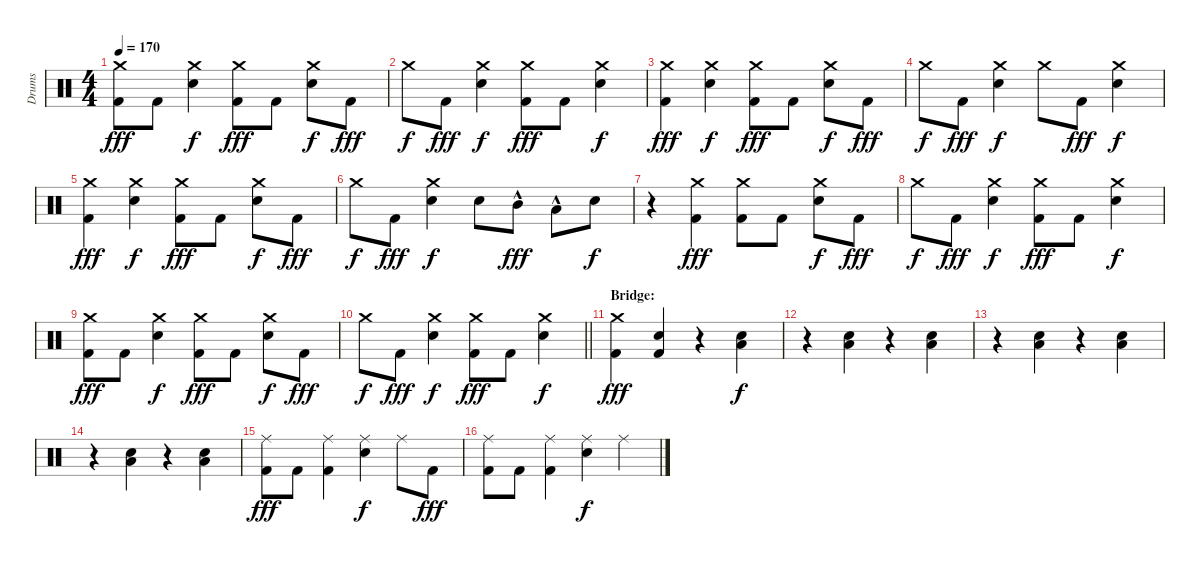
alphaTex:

\track ("Drums" "Drums") {instrument percussion}
\staff {score}
\articulation defaults
\ts (4 4)
\tempo 170
\clef neutral
\ks c
("Crash medium (hit)" "Kick (hit) 2").8{dy fff} "Kick (hit) 2".8 ("Crash medium (hit)" "Electric Snare (hit)").4{dy f} ("Crash medium (hit)" "Kick (hit) 2").8{dy fff} "Kick (hit) 2".8 ("Crash medium (hit)" "Electric Snare (hit)").8{dy f} "Kick (hit) 2".8{dy fff} |
"Crash medium (hit)".8{dy f} "Kick (hit) 2".8{dy fff} ("Crash medium (hit)" "Electric Snare (hit)").4{dy f} ("Crash medium (hit)" "Kick (hit) 2").8{dy fff} "Kick (hit) 2".8 ("Crash medium (hit)" "Electric Snare (hit)").4{dy f} |
("Crash medium (hit)" "Kick (hit) 2").4{dy fff} ("Crash medium (hit)" "Electric Snare (hit)").4{dy f} ("Crash medium (hit)" "Kick (hit) 2").8{dy fff} "Kick (hit) 2".8 ("Crash medium (hit)" "Electric Snare (hit)").8{dy f} "Kick (hit) 2".8{dy fff} |
"Crash medium (hit)".8{dy f} "Kick (hit) 2".8{dy fff} ("Crash medium (hit)" "Electric Snare (hit)").4{dy f} "Crash medium (hit)".8 "Kick (hit) 2".8{dy fff} ("Crash medium (hit)" "Electric Snare (hit)").4{dy f} |
("Crash medium (hit)" "Kick (hit) 2").4{dy fff} ("Crash medium (hit)" "Electric Snare (hit)").4{dy f} ("Crash medium (hit)" "Kick (hit) 2").8{dy fff} "Kick (hit) 2".8 ("Crash medium (hit)" "Electric Snare (hit)").8{dy f} "Kick (hit) 2".8{dy fff} |
"Crash medium (hit)".8{dy f} "Kick (hit) 2".8{dy fff} ("Crash medium (hit)" "Electric Snare (hit)").4{dy f} "Electric Snare (hit)".8 "Mid Tom (hit)"{hac}.8{dy fff} "Low Tom (hit)"{hac}.8 "Electric Snare (hit)".8{dy f} |
r.4 ("Crash medium (hit)" "Kick (hit) 2").4{dy fff} ("Crash medium (hit)" "Kick (hit) 2").8 "Kick (hit) 2".8 ("Crash medium (hit)" "Electric Snare (hit)").8{dy f} "Kick (hit) 2".8{dy fff} |
"Crash medium (hit)".8{dy f} "Kick (hit) 2".8{dy fff} ("Crash medium (hit)" "Electric Snare (hit)").4{dy f} ("Crash medium (hit)" "Kick (hit) 2").8{dy fff} "Kick (hit) 2".8 ("Crash medium (hit)" "Electric Snare (hit)").4{dy f} |
("Crash medium (hit)" "Kick (hit) 2").8{dy fff} "Kick (hit) 2".8 ("Crash medium (hit)" "Electric Snare (hit)").4{dy f} ("Crash medium (hit)" "Kick (hit) 2").8{dy fff} "Kick (hit) 2".8 ("Crash medium (hit)" "Electric Snare (hit)").8{dy f} "Kick (hit) 2".8{dy fff} |
\barLineRight lightlight "Crash medium (hit)".8{dy f} "Kick (hit) 2".8{dy fff}
("Crash medium (hit)" "Electric Snare (hit)").4{dy f} ("Crash medium (hit)" "Kick (hit) 2").8{dy fff} "Kick (hit) 2".8 ("Crash medium (hit)" "Electric Snare (hit)").4{dy f} |
\section ("" "Bridge:")
("Crash medium (hit)" "Kick (hit) 2").4{dy fff} ("Electric Snare (hit)" "Kick (hit) 2").4 r.4 ("Low Tom (hit)" "Electric Snare (hit)").4{dy f} |
r.4 ("Low Tom (hit)" "Electric Snare (hit)").4 r.4 ("Low Tom (hit)" "Electric Snare (hit)").4 |
r.4 ("Low Tom (hit)" "Electric Snare (hit)").4 r.4 ("Low Tom (hit)" "Electric Snare (hit)").4 |
r.4 ("Low Tom (hit)" "Electric Snare (hit)").4 r.4 ("Low Tom (hit)" "Electric Snare (hit)").4 |
("Ride (middle)" "Kick (hit) 2").8{dy fff} "Kick (hit) 2".8 ("Ride (middle)" "Kick (hit) 2").4 ("Ride (middle)" "Electric Snare (hit)").4{dy f} "Ride (middle)".8 "Kick (hit) 2".8{dy fff} |
("Ride (middle)" "Kick (hit) 2").8 "Kick (hit) 2".8 ("Ride (middle)" "Kick (hit) 2").4 ("Ride (middle)" "Electric Snare (hit)").4{dy f} "Ride (middle)".4
